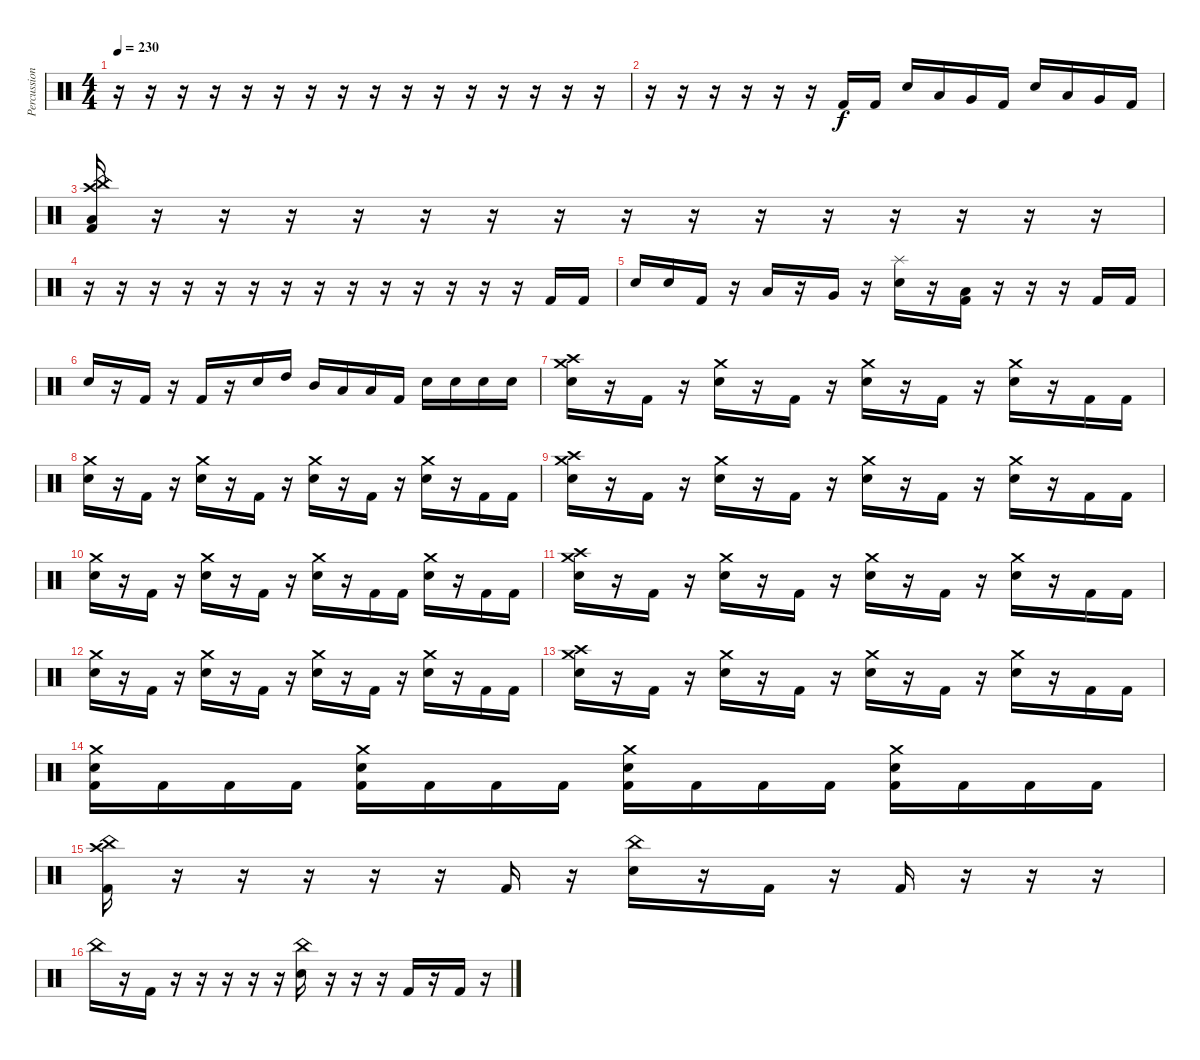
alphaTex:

\track ("Percussion" "Percussion") {instrument percussion}
\staff {score}
\articulation defaults
\ts (4 4)
\tempo 230
\clef neutral
\ks c
r.16{dy f} r.16 r.16 r.16 r.16 r.16 r.16 r.16 r.16 r.16 r.16 r.16 r.16 r.16 r.16 r.16 |
r.16 r.16 r.16 r.16 r.16 r.16 "Kick (hit) 2".16 "Kick (hit) 2".16 "Electric Snare (hit)".16 "Low Tom (hit)".16 "Very Low Tom (hit)".16 "Kick (hit) 2".16 "Electric Snare (hit)".16 "Low Tom (hit)".16 "Very Low Tom (hit)".16 "Kick (hit) 2".16 |
("China (hit)" "Crash high (hit)" "Low Floor Tom (hit)" "Kick (hit) 2").16 r.16 r.16 r.16 r.16 r.16 r.16 r.16 r.16 r.16 r.16 r.16 r.16 r.16 r.16 r.16 |
r.16 r.16 r.16 r.16 r.16 r.16 r.16 r.16 r.16 r.16 r.16 r.16 r.16 r.16 "Kick (hit) 2".16 "Kick (hit) 2".16 |
"Electric Snare (hit)".16 "Electric Snare (hit)".16 "Kick (hit) 2".16 r.16 "Low Tom (hit)".16 r.16 "Very Low Tom (hit)".16 r.16 ("Splash (hit)" "Electric Snare (hit)").16 r.16 ("Low Floor Tom (hit)" "Kick (hit) 2").16 r.16 r.16 r.16 "Kick (hit) 2".16 "Kick (hit) 2".16 |
"Electric Snare (hit)".16 r.16 "Kick (hit) 2".16 r.16 "Kick (hit) 2".16 r.16 "Electric Snare (hit)".16 "High Tom (hit)".16 "Mid Tom (hit)".16 "Low Tom (hit)".16 "Low Floor Tom (hit)".16 "Kick (hit) 2".16 "Electric Snare (hit)".16 "Electric Snare (hit)".16 "Electric Snare (hit)".16 "Electric Snare (hit)".16 |
("Crash medium (hit)" "Crash high (hit)" "Electric Snare (hit)").16 r.16 "Kick (hit) 2".16 r.16 ("Crash medium (hit)" "Electric Snare (hit)").16 r.16 "Kick (hit) 2".16 r.16 ("Crash medium (hit)" "Electric Snare (hit)").16 r.16 "Kick (hit) 2".16 r.16 ("Crash medium (hit)" "Electric Snare (hit)").16 r.16 "Kick (hit) 2".16 "Kick (hit) 2".16 |
("Crash medium (hit)" "Electric Snare (hit)").16 r.16 "Kick (hit) 2".16 r.16 ("Crash medium (hit)" "Electric Snare (hit)").16 r.16 "Kick (hit) 2".16 r.16 ("Crash medium (hit)" "Electric Snare (hit)").16 r.16 "Kick (hit) 2".16 r.16 ("Crash medium (hit)" "Electric Snare (hit)").16 r.16 "Kick (hit) 2".16 "Kick (hit) 2".16 |
("Crash medium (hit)" "Crash high (hit)" "Electric Snare (hit)").16 r.16 "Kick (hit) 2".16 r.16 ("Crash medium (hit)" "Electric Snare (hit)").16 r.16 "Kick (hit) 2".16 r.16 ("Crash medium (hit)" "Electric Snare (hit)").16 r.16 "Kick (hit) 2".16 r.16 ("Crash medium (hit)" "Electric Snare (hit)").16 r.16 "Kick (hit) 2".16 "Kick (hit) 2".16 |
("Crash medium (hit)" "Electric Snare (hit)").16 r.16 "Kick (hit) 2".16 r.16 ("Crash medium (hit)" "Electric Snare (hit)").16 r.16 "Kick (hit) 2".16 r.16 ("Crash medium (hit)" "Electric Snare (hit)").16 r.16 "Kick (hit) 2".16 "Kick (hit) 2".16 ("Crash medium (hit)" "Electric Snare (hit)").16 r.16 "Kick (hit) 2".16 "Kick (hit) 2".16 |
("Crash medium (hit)" "Crash high (hit)" "Electric Snare (hit)").16 r.16 "Kick (hit) 2".16 r.16 ("Crash medium (hit)" "Electric Snare (hit)").16 r.16 "Kick (hit) 2".16 r.16 ("Crash medium (hit)" "Electric Snare (hit)").16 r.16 "Kick (hit) 2".16 r.16 ("Crash medium (hit)" "Electric Snare (hit)").16 r.16 "Kick (hit) 2".16 "Kick (hit) 2".16 |
("Crash medium (hit)" "Electric Snare (hit)").16 r.16 "Kick (hit) 2".16 r.16 ("Crash medium (hit)" "Electric Snare (hit)").16 r.16 "Kick (hit) 2".16 r.16 ("Crash medium (hit)" "Electric Snare (hit)").16 r.16 "Kick (hit) 2".16 r.16 ("Crash medium (hit)" "Electric Snare (hit)").16 r.16 "Kick (hit) 2".16 "Kick (hit) 2".16 |
("Crash medium (hit)" "Crash high (hit)" "Electric Snare (hit)").16 r.16 "Kick (hit) 2".16 r.16 ("Crash medium (hit)" "Electric Snare (hit)").16 r.16 "Kick (hit) 2".16 r.16 ("Crash medium (hit)" "Electric Snare (hit)").16 r.16 "Kick (hit) 2".16 r.16 ("Crash medium (hit)" "Electric Snare (hit)").16 r.16 "Kick (hit) 2".16 "Kick (hit) 2".16 |
("Crash medium (hit)" "Electric Snare (hit)" "Kick (hit) 2").16 "Kick (hit) 2".16 "Kick (hit) 2".16 "Kick (hit) 2".16 ("Crash medium (hit)" "Electric Snare (hit)" "Kick (hit) 2").16 "Kick (hit) 2".16 "Kick (hit) 2".16 "Kick (hit) 2".16 ("Crash medium (hit)" "Electric Snare (hit)" "Kick (hit) 2").16 "Kick (hit) 2".16 "Kick (hit) 2".16 "Kick (hit) 2".16 ("Crash medium (hit)" "Electric Snare (hit)" "Kick (hit) 2").16 "Kick (hit) 2".16 "Kick (hit) 2".16 "Kick (hit) 2".16 |
("China (hit)" "Crash high (hit)" "Kick (hit) 2").16 r.16 r.16 r.16 r.16 r.16 "Kick (hit) 2".16 r.16 ("China (hit)" "Electric Snare (hit)").16 r.16 "Kick (hit) 2".16 r.16 "Kick (hit) 2".16 r.16 r.16 r.16 |
"China (hit)".16 r.16 "Kick (hit) 2".16 r.16 r.16 r.16 r.16 r.16 ("China (hit)" "Electric Snare (hit)").16 r.16 r.16 r.16 "Kick (hit) 2".16 r.16 "Kick (hit) 2".16 r.16
